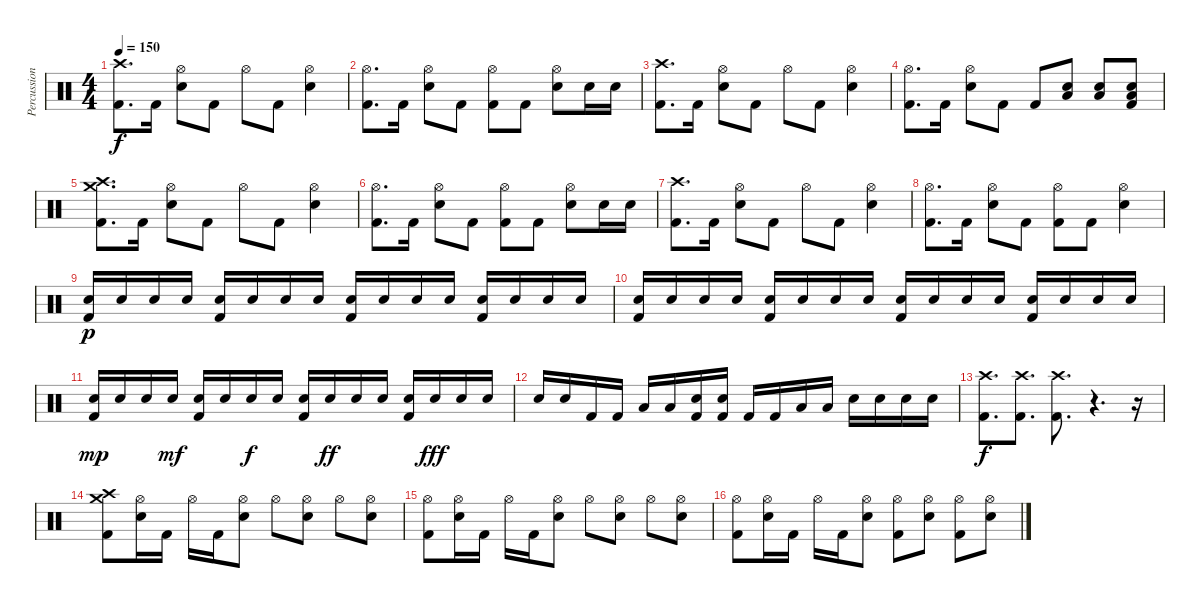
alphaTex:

\track ("Percussion" "Percussion") {instrument percussion}
\staff {score}
\articulation defaults
\ts (4 4)
\tempo 150
\clef neutral
\ks c
("Crash high (hit)" "Kick (hit) 2").8{d dy f} "Kick (hit) 2".16 ("Hi-Hat (open)" "Electric Snare (hit)").8 "Kick (hit) 2".8 "Hi-Hat (open)".8 "Kick (hit) 2".8 ("Hi-Hat (open)" "Electric Snare (hit)").4 |
("Hi-Hat (open)" "Kick (hit) 2").8{d} "Kick (hit) 2".16 ("Hi-Hat (open)" "Electric Snare (hit)").8 "Kick (hit) 2".8 ("Hi-Hat (open)" "Kick (hit) 2").8 "Kick (hit) 2".8 ("Hi-Hat (open)" "Electric Snare (hit)").8 "Electric Snare (hit)".16 "Electric Snare (hit)".16 |
("Crash high (hit)" "Kick (hit) 2").8{d} "Kick (hit) 2".16 ("Hi-Hat (open)" "Electric Snare (hit)").8 "Kick (hit) 2".8 "Hi-Hat (open)".8 "Kick (hit) 2".8 ("Hi-Hat (open)" "Electric Snare (hit)").4 |
("Hi-Hat (open)" "Kick (hit) 2").8{d} "Kick (hit) 2".16 ("Hi-Hat (open)" "Electric Snare (hit)").8 "Kick (hit) 2".8 "Kick (hit) 2".8 ("Low Floor Tom (hit)" "Electric Snare (hit)").8 ("Low Floor Tom (hit)" "Electric Snare (hit)").8 ("Low Floor Tom (hit)" "Electric Snare (hit)" "Kick (hit) 2").8 |
("Crash high (hit)" "Crash medium (hit)" "Kick (hit) 2").8{d} "Kick (hit) 2".16 ("Hi-Hat (open)" "Electric Snare (hit)").8 "Kick (hit) 2".8 "Hi-Hat (open)".8 "Kick (hit) 2".8 ("Hi-Hat (open)" "Electric Snare (hit)").4 |
("Hi-Hat (open)" "Kick (hit) 2").8{d} "Kick (hit) 2".16 ("Hi-Hat (open)" "Electric Snare (hit)").8 "Kick (hit) 2".8 ("Hi-Hat (open)" "Kick (hit) 2").8 "Kick (hit) 2".8 ("Hi-Hat (open)" "Electric Snare (hit)").8 "Electric Snare (hit)".16 "Electric Snare (hit)".16 |
("Crash high (hit)" "Kick (hit) 2").8{d} "Kick (hit) 2".16 ("Hi-Hat (open)" "Electric Snare (hit)").8 "Kick (hit) 2".8 "Hi-Hat (open)".8 "Kick (hit) 2".8 ("Hi-Hat (open)" "Electric Snare (hit)").4 |
("Hi-Hat (open)" "Kick (hit) 2").8{d} "Kick (hit) 2".16 ("Hi-Hat (open)" "Electric Snare (hit)").8 "Kick (hit) 2".8 ("Hi-Hat (open)" "Kick (hit) 2").8 "Kick (hit) 2".8 ("Hi-Hat (open)" "Electric Snare (hit)").4 |
("Electric Snare (hit)" "Kick (hit) 2").16{dy p} "Electric Snare (hit)".16 "Electric Snare (hit)".16 "Electric Snare (hit)".16 ("Electric Snare (hit)" "Kick (hit) 2").16 "Electric Snare (hit)".16 "Electric Snare (hit)".16 "Electric Snare (hit)".16 ("Electric Snare (hit)" "Kick (hit) 2").16 "Electric Snare (hit)".16 "Electric Snare (hit)".16 "Electric Snare (hit)".16 ("Electric Snare (hit)" "Kick (hit) 2").16 "Electric Snare (hit)".16 "Electric Snare (hit)".16 "Electric Snare (hit)".16 |
("Electric Snare (hit)" "Kick (hit) 2").16 "Electric Snare (hit)".16 "Electric Snare (hit)".16 "Electric Snare (hit)".16 ("Electric Snare (hit)" "Kick (hit) 2").16 "Electric Snare (hit)".16 "Electric Snare (hit)".16 "Electric Snare (hit)".16 ("Electric Snare (hit)" "Kick (hit) 2").16 "Electric Snare (hit)".16 "Electric Snare (hit)".16 "Electric Snare (hit)".16 ("Electric Snare (hit)" "Kick (hit) 2").16 "Electric Snare (hit)".16 "Electric Snare (hit)".16 "Electric Snare (hit)".16 |
("Electric Snare (hit)" "Kick (hit) 2").16{dy mp} "Electric Snare (hit)".16 "Electric Snare (hit)".16 "Electric Snare (hit)".16{dy mf} ("Electric Snare (hit)" "Kick (hit) 2").16 "Electric Snare (hit)".16 "Electric Snare (hit)".16{dy f} "Electric Snare (hit)".16 ("Electric Snare (hit)" "Kick (hit) 2").16 "Electric Snare (hit)".16{dy ff} "Electric Snare (hit)".16 "Electric Snare (hit)".16 ("Electric Snare (hit)" "Kick (hit) 2").16 "Electric Snare (hit)".16{dy fff} "Electric Snare (hit)".16 "Electric Snare (hit)".16 |
"Electric Snare (hit)".16 "Electric Snare (hit)".16 "Kick (hit) 2".16 "Kick (hit) 2".16 "Low Floor Tom (hit)".16 "Low Floor Tom (hit)".16 ("Electric Snare (hit)" "Kick (hit) 2").16 ("Electric Snare (hit)" "Kick (hit) 2").16 "Kick (hit) 2".16 "Kick (hit) 2".16 "Low Floor Tom (hit)".16 "Low Floor Tom (hit)".16 "Electric Snare (hit)".16 "Electric Snare (hit)".16 "Electric Snare (hit)".16 "Electric Snare (hit)".16 |
("Crash high (hit)" "Kick (hit) 2").8{d dy f} ("Crash high (hit)" "Kick (hit) 2").8{d} ("Crash high (hit)" "Kick (hit) 2").8{d} r.4{d} r.16 |
("Crash high (hit)" "Crash medium (hit)" "Kick (hit) 2").8 ("Hi-Hat (open)" "Electric Snare (hit)").16 "Kick (hit) 2".16 "Hi-Hat (open)".16 "Kick (hit) 2".16 ("Hi-Hat (open)" "Electric Snare (hit)").8 "Hi-Hat (open)".8 ("Hi-Hat (open)" "Electric Snare (hit)").8 "Hi-Hat (open)".8 ("Hi-Hat (open)" "Electric Snare (hit)").8 |
("Hi-Hat (open)" "Kick (hit) 2").8 ("Hi-Hat (open)" "Electric Snare (hit)").16 "Kick (hit) 2".16 "Hi-Hat (open)".16 "Kick (hit) 2".16 ("Hi-Hat (open)" "Electric Snare (hit)").8 "Hi-Hat (open)".8 ("Hi-Hat (open)" "Electric Snare (hit)").8 "Hi-Hat (open)".8 ("Hi-Hat (open)" "Electric Snare (hit)").8 |
("Hi-Hat (open)" "Kick (hit) 2").8 ("Hi-Hat (open)" "Electric Snare (hit)").16 "Kick (hit) 2".16 "Hi-Hat (open)".16 "Kick (hit) 2".16 ("Hi-Hat (open)" "Electric Snare (hit)").8 ("Hi-Hat (open)" "Kick (hit) 2").8 ("Hi-Hat (open)" "Electric Snare (hit)").8 ("Hi-Hat (open)" "Kick (hit) 2").8 ("Hi-Hat (open)" "Electric Snare (hit)").8
